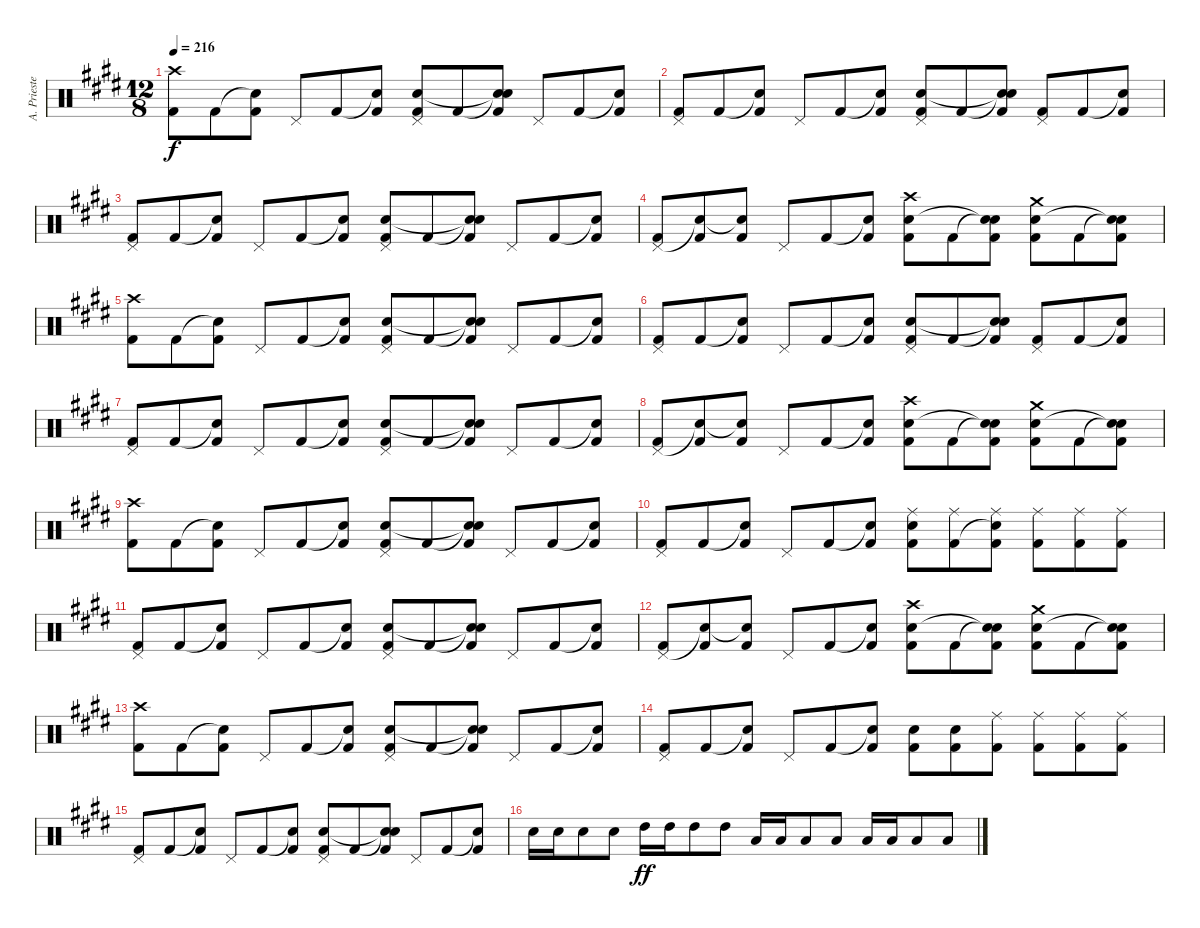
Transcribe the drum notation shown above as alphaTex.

\track ("A. Priester" "A. Prieste") {instrument percussion}
\staff {score}
\articulation defaults
\ts (12 8)
\tempo 216
\clef neutral
\ks e
("Crash high (hit)" "Kick (hit) 2").8{dy f} "Kick (hit) 2".8 ("Snare (hit)"{t} "Kick (hit) 2").8 "Pedal Hi-Hat (hit)".8 "Kick (hit) 2".8 ("Snare (hit)"{t} "Kick (hit) 2").8 ("Pedal Hi-Hat (hit)" "Electric Snare (hit)" "Kick (hit) 2").8 "Kick (hit) 2".8 ("Snare (hit)"{t} "Snare (hit)"{t} "Kick (hit) 2").8 "Pedal Hi-Hat (hit)".8 "Kick (hit) 2".8 ("Snare (hit)"{t} "Kick (hit) 2").8 |
("Pedal Hi-Hat (hit)" "Kick (hit) 2").8 "Kick (hit) 2".8 ("Snare (hit)"{t} "Kick (hit) 2").8 "Pedal Hi-Hat (hit)".8 "Kick (hit) 2".8 ("Snare (hit)"{t} "Kick (hit) 2").8 ("Pedal Hi-Hat (hit)" "Electric Snare (hit)" "Kick (hit) 2").8 "Kick (hit) 2".8 ("Snare (hit)"{t} "Snare (hit)"{t} "Kick (hit) 2").8 ("Pedal Hi-Hat (hit)" "Kick (hit) 2").8 "Kick (hit) 2".8 ("Snare (hit)"{t} "Kick (hit) 2").8 |
("Pedal Hi-Hat (hit)" "Kick (hit) 2").8 "Kick (hit) 2".8 ("Snare (hit)"{t} "Kick (hit) 2").8 "Pedal Hi-Hat (hit)".8 "Kick (hit) 2".8 ("Snare (hit)"{t} "Kick (hit) 2").8 ("Pedal Hi-Hat (hit)" "Electric Snare (hit)" "Kick (hit) 2").8 "Kick (hit) 2".8 ("Snare (hit)"{t} "Snare (hit)"{t} "Kick (hit) 2").8 "Pedal Hi-Hat (hit)".8 "Kick (hit) 2".8 ("Snare (hit)"{t} "Kick (hit) 2").8 |
("Pedal Hi-Hat (hit)" "Kick (hit) 2").8 ("Snare (hit)"{t} "Kick (hit) 2").8 ("Snare (hit)"{t} "Kick (hit) 2").8 "Pedal Hi-Hat (hit)".8 "Kick (hit) 2".8 ("Snare (hit)"{t} "Kick (hit) 2").8 ("Crash high (hit)" "Electric Snare (hit)" "Kick (hit) 2").8 "Kick (hit) 2".8 ("Snare (hit)"{t} "Snare (hit)"{t} "Kick (hit) 2").8 ("Crash medium (hit)" "Electric Snare (hit)" "Kick (hit) 2").8 "Kick (hit) 2".8 ("Snare (hit)"{t} "Snare (hit)"{t} "Kick (hit) 2").8 |
("Crash high (hit)" "Kick (hit) 2").8 "Kick (hit) 2".8 ("Snare (hit)"{t} "Kick (hit) 2").8 "Pedal Hi-Hat (hit)".8 "Kick (hit) 2".8 ("Snare (hit)"{t} "Kick (hit) 2").8 ("Pedal Hi-Hat (hit)" "Electric Snare (hit)" "Kick (hit) 2").8 "Kick (hit) 2".8 ("Snare (hit)"{t} "Snare (hit)"{t} "Kick (hit) 2").8 "Pedal Hi-Hat (hit)".8 "Kick (hit) 2".8 ("Snare (hit)"{t} "Kick (hit) 2").8 |
("Pedal Hi-Hat (hit)" "Kick (hit) 2").8 "Kick (hit) 2".8 ("Snare (hit)"{t} "Kick (hit) 2").8 "Pedal Hi-Hat (hit)".8 "Kick (hit) 2".8 ("Snare (hit)"{t} "Kick (hit) 2").8 ("Pedal Hi-Hat (hit)" "Electric Snare (hit)" "Kick (hit) 2").8 "Kick (hit) 2".8 ("Snare (hit)"{t} "Snare (hit)"{t} "Kick (hit) 2").8 ("Pedal Hi-Hat (hit)" "Kick (hit) 2").8 "Kick (hit) 2".8 ("Snare (hit)"{t} "Kick (hit) 2").8 |
("Pedal Hi-Hat (hit)" "Kick (hit) 2").8 "Kick (hit) 2".8 ("Snare (hit)"{t} "Kick (hit) 2").8 "Pedal Hi-Hat (hit)".8 "Kick (hit) 2".8 ("Snare (hit)"{t} "Kick (hit) 2").8 ("Pedal Hi-Hat (hit)" "Electric Snare (hit)" "Kick (hit) 2").8 "Kick (hit) 2".8 ("Snare (hit)"{t} "Snare (hit)"{t} "Kick (hit) 2").8 "Pedal Hi-Hat (hit)".8 "Kick (hit) 2".8 ("Snare (hit)"{t} "Kick (hit) 2").8 |
("Pedal Hi-Hat (hit)" "Kick (hit) 2").8 ("Snare (hit)"{t} "Kick (hit) 2").8 ("Snare (hit)"{t} "Kick (hit) 2").8 "Pedal Hi-Hat (hit)".8 "Kick (hit) 2".8 ("Snare (hit)"{t} "Kick (hit) 2").8 ("Crash high (hit)" "Electric Snare (hit)" "Kick (hit) 2").8 "Kick (hit) 2".8 ("Snare (hit)"{t} "Snare (hit)"{t} "Kick (hit) 2").8 ("Crash medium (hit)" "Electric Snare (hit)" "Kick (hit) 2").8 "Kick (hit) 2".8 ("Snare (hit)"{t} "Snare (hit)"{t} "Kick (hit) 2").8 |
("Crash high (hit)" "Kick (hit) 2").8 "Kick (hit) 2".8 ("Snare (hit)"{t} "Kick (hit) 2").8 "Pedal Hi-Hat (hit)".8 "Kick (hit) 2".8 ("Snare (hit)"{t} "Kick (hit) 2").8 ("Pedal Hi-Hat (hit)" "Electric Snare (hit)" "Kick (hit) 2").8 "Kick (hit) 2".8 ("Snare (hit)"{t} "Snare (hit)"{t} "Kick (hit) 2").8 "Pedal Hi-Hat (hit)".8 "Kick (hit) 2".8 ("Snare (hit)"{t} "Kick (hit) 2").8 |
("Pedal Hi-Hat (hit)" "Kick (hit) 2").8 "Kick (hit) 2".8 ("Snare (hit)"{t} "Kick (hit) 2").8 "Pedal Hi-Hat (hit)".8 "Kick (hit) 2".8 ("Snare (hit)"{t} "Kick (hit) 2").8 ("Ride (middle)" "Electric Snare (hit)" "Kick (hit) 2").8 ("Ride (middle)" "Kick (hit) 2").8 ("Ride (middle)" "Snare (hit)"{t} "Kick (hit) 2").8 ("Ride (middle)" "Kick (hit) 2").8 ("Ride (middle)" "Kick (hit) 2").8 ("Ride (middle)" "Kick (hit) 2").8 |
("Pedal Hi-Hat (hit)" "Kick (hit) 2").8 "Kick (hit) 2".8 ("Snare (hit)"{t} "Kick (hit) 2").8 "Pedal Hi-Hat (hit)".8 "Kick (hit) 2".8 ("Snare (hit)"{t} "Kick (hit) 2").8 ("Pedal Hi-Hat (hit)" "Electric Snare (hit)" "Kick (hit) 2").8 "Kick (hit) 2".8 ("Snare (hit)"{t} "Snare (hit)"{t} "Kick (hit) 2").8 "Pedal Hi-Hat (hit)".8 "Kick (hit) 2".8 ("Snare (hit)"{t} "Kick (hit) 2").8 |
("Pedal Hi-Hat (hit)" "Kick (hit) 2").8 ("Snare (hit)"{t} "Kick (hit) 2").8 ("Snare (hit)"{t} "Kick (hit) 2").8 "Pedal Hi-Hat (hit)".8 "Kick (hit) 2".8 ("Snare (hit)"{t} "Kick (hit) 2").8 ("Crash high (hit)" "Electric Snare (hit)" "Kick (hit) 2").8 "Kick (hit) 2".8 ("Snare (hit)"{t} "Snare (hit)"{t} "Kick (hit) 2").8 ("Crash medium (hit)" "Electric Snare (hit)" "Kick (hit) 2").8 "Kick (hit) 2".8 ("Snare (hit)"{t} "Snare (hit)"{t} "Kick (hit) 2").8 |
("Crash high (hit)" "Kick (hit) 2").8 "Kick (hit) 2".8 ("Snare (hit)"{t} "Kick (hit) 2").8 "Pedal Hi-Hat (hit)".8 "Kick (hit) 2".8 ("Snare (hit)"{t} "Kick (hit) 2").8 ("Pedal Hi-Hat (hit)" "Electric Snare (hit)" "Kick (hit) 2").8 "Kick (hit) 2".8 ("Snare (hit)"{t} "Snare (hit)"{t} "Kick (hit) 2").8 "Pedal Hi-Hat (hit)".8 "Kick (hit) 2".8 ("Snare (hit)"{t} "Kick (hit) 2").8 |
("Pedal Hi-Hat (hit)" "Kick (hit) 2").8 "Kick (hit) 2".8 ("Snare (hit)"{t} "Kick (hit) 2").8 "Pedal Hi-Hat (hit)".8 "Kick (hit) 2".8 ("Snare (hit)"{t} "Kick (hit) 2").8 ("Electric Snare (hit)" "Kick (hit) 2").8 ("Electric Snare (hit)" "Kick (hit) 2").8 ("Ride (middle)" "Kick (hit) 2").8 ("Ride (middle)" "Kick (hit) 2").8 ("Ride (middle)" "Kick (hit) 2").8 ("Ride (middle)" "Kick (hit) 2").8 |
("Pedal Hi-Hat (hit)" "Kick (hit) 2").8 "Kick (hit) 2".8 ("Snare (hit)"{t} "Kick (hit) 2").8 "Pedal Hi-Hat (hit)".8 "Kick (hit) 2".8 ("Snare (hit)"{t} "Kick (hit) 2").8 ("Pedal Hi-Hat (hit)" "Electric Snare (hit)" "Kick (hit) 2").8 "Kick (hit) 2".8 ("Snare (hit)"{t} "Snare (hit)"{t} "Kick (hit) 2").8 "Pedal Hi-Hat (hit)".8 "Kick (hit) 2".8 ("Snare (hit)"{t} "Kick (hit) 2").8 |
"Electric Snare (hit)".16 "Electric Snare (hit)".16 "Electric Snare (hit)".8 "Electric Snare (hit)".8 "High Tom (hit)".16{dy ff} "High Tom (hit)".16 "High Tom (hit)".8 "High Tom (hit)".8 "Low Tom (hit)".16 "Low Tom (hit)".16 "Low Tom (hit)".8 "Low Tom (hit)".8 "Low Floor Tom (hit)".16 "Low Floor Tom (hit)".16 "Low Floor Tom (hit)".8 "Low Floor Tom (hit)".8
